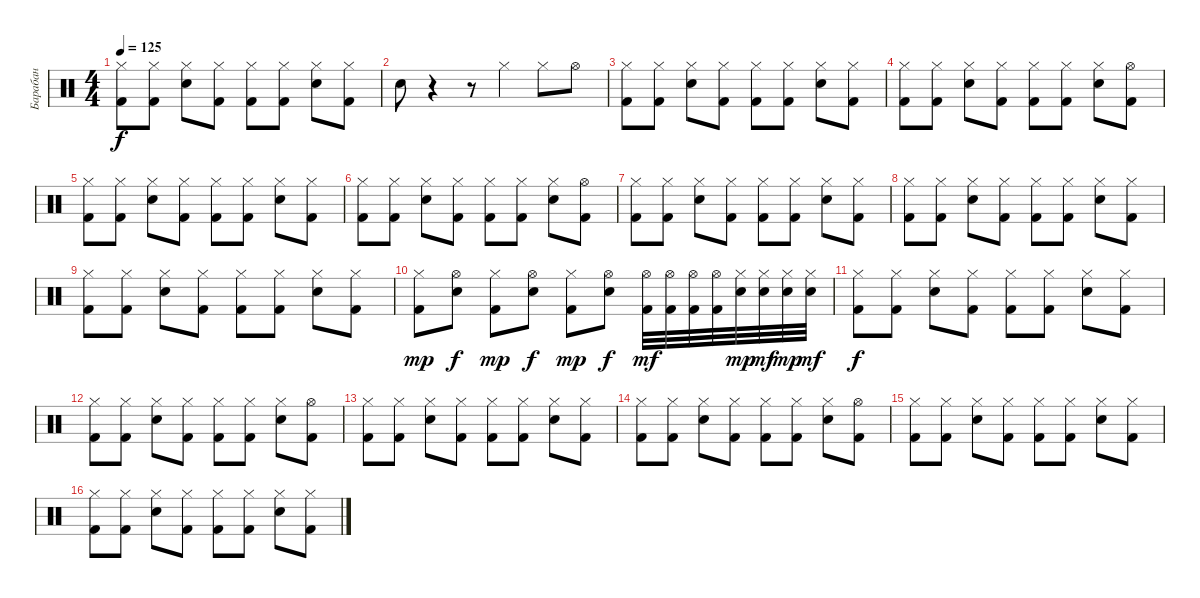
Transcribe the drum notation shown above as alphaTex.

\track ("Барабан" "Барабан") {instrument percussion}
\staff {score}
\articulation defaults
\ts (4 4)
\tempo 125
\clef neutral
\ks c
("Kick (hit) 2" "Hi-Hat (closed)").8{dy f} ("Kick (hit) 2" "Hi-Hat (closed)").8 ("Electric Snare (hit)" "Hi-Hat (closed)").8 ("Kick (hit) 2" "Hi-Hat (closed)").8 ("Kick (hit) 2" "Hi-Hat (closed)").8 ("Kick (hit) 2" "Hi-Hat (closed)").8 ("Electric Snare (hit)" "Hi-Hat (closed)").8 ("Kick (hit) 2" "Hi-Hat (closed)").8 |
"Electric Snare (hit)".8 r.4 r.8 "Hi-Hat (closed)".4 "Hi-Hat (closed)".8 "Hi-Hat (open)".8 |
("Kick (hit) 2" "Hi-Hat (closed)").8 ("Kick (hit) 2" "Hi-Hat (closed)").8 ("Electric Snare (hit)" "Hi-Hat (closed)").8 ("Kick (hit) 2" "Hi-Hat (closed)").8 ("Kick (hit) 2" "Hi-Hat (closed)").8 ("Kick (hit) 2" "Hi-Hat (closed)").8 ("Electric Snare (hit)" "Hi-Hat (closed)").8 ("Kick (hit) 2" "Hi-Hat (closed)").8 |
("Kick (hit) 2" "Hi-Hat (closed)").8 ("Kick (hit) 2" "Hi-Hat (closed)").8 ("Electric Snare (hit)" "Hi-Hat (closed)").8 ("Kick (hit) 2" "Hi-Hat (closed)").8 ("Kick (hit) 2" "Hi-Hat (closed)").8 ("Kick (hit) 2" "Hi-Hat (closed)").8 ("Electric Snare (hit)" "Hi-Hat (closed)").8 ("Kick (hit) 2" "Hi-Hat (open)").8 |
("Kick (hit) 2" "Hi-Hat (closed)").8 ("Kick (hit) 2" "Hi-Hat (closed)").8 ("Electric Snare (hit)" "Hi-Hat (closed)").8 ("Kick (hit) 2" "Hi-Hat (closed)").8 ("Kick (hit) 2" "Hi-Hat (closed)").8 ("Kick (hit) 2" "Hi-Hat (closed)").8 ("Electric Snare (hit)" "Hi-Hat (closed)").8 ("Kick (hit) 2" "Hi-Hat (closed)").8 |
("Kick (hit) 2" "Hi-Hat (closed)").8 ("Kick (hit) 2" "Hi-Hat (closed)").8 ("Electric Snare (hit)" "Hi-Hat (closed)").8 ("Kick (hit) 2" "Hi-Hat (closed)").8 ("Kick (hit) 2" "Hi-Hat (closed)").8 ("Kick (hit) 2" "Hi-Hat (closed)").8 ("Electric Snare (hit)" "Hi-Hat (closed)").8 ("Kick (hit) 2" "Hi-Hat (open)").8 |
("Kick (hit) 2" "Hi-Hat (closed)").8 ("Kick (hit) 2" "Hi-Hat (closed)").8 ("Electric Snare (hit)" "Hi-Hat (closed)").8 ("Kick (hit) 2" "Hi-Hat (closed)").8 ("Kick (hit) 2" "Hi-Hat (closed)").8 ("Kick (hit) 2" "Hi-Hat (closed)").8 ("Electric Snare (hit)" "Hi-Hat (closed)").8 ("Kick (hit) 2" "Hi-Hat (closed)").8 |
("Kick (hit) 2" "Hi-Hat (closed)").8 ("Kick (hit) 2" "Hi-Hat (closed)").8 ("Electric Snare (hit)" "Hi-Hat (closed)").8 ("Kick (hit) 2" "Hi-Hat (closed)").8 ("Kick (hit) 2" "Hi-Hat (closed)").8 ("Kick (hit) 2" "Hi-Hat (closed)").8 ("Electric Snare (hit)" "Hi-Hat (closed)").8 ("Kick (hit) 2" "Hi-Hat (closed)").8 |
("Kick (hit) 2" "Hi-Hat (closed)").8 ("Kick (hit) 2" "Hi-Hat (closed)").8 ("Electric Snare (hit)" "Hi-Hat (closed)").8 ("Kick (hit) 2" "Hi-Hat (closed)").8 ("Kick (hit) 2" "Hi-Hat (closed)").8 ("Kick (hit) 2" "Hi-Hat (closed)").8 ("Electric Snare (hit)" "Hi-Hat (closed)").8 ("Kick (hit) 2" "Hi-Hat (closed)").8 |
("Kick (hit) 2" "Hi-Hat (closed)").8{dy mp} ("Electric Snare (hit)" "Hi-Hat (open)").8{dy f} ("Kick (hit) 2" "Hi-Hat (closed)").8{dy mp} ("Electric Snare (hit)" "Hi-Hat (open)").8{dy f} ("Kick (hit) 2" "Hi-Hat (closed)").8{dy mp} ("Electric Snare (hit)" "Hi-Hat (open)").8{dy f} ("Hi-Hat (open)" "Kick (hit) 2").32{dy mf} ("Hi-Hat (open)" "Kick (hit) 2").32 ("Hi-Hat (open)" "Kick (hit) 2").32 ("Hi-Hat (open)" "Kick (hit) 2").32 ("Hi-Hat (closed)" "Snare (hit) 2").32{dy mp} ("Hi-Hat (closed)" "Snare (hit) 2").32{dy mf} ("Hi-Hat (closed)" "Snare (hit) 2").32{dy mp} ("Hi-Hat (closed)" "Snare (hit) 2").32{dy mf} |
("Kick (hit) 2" "Hi-Hat (closed)").8{dy f} ("Kick (hit) 2" "Hi-Hat (closed)").8 ("Electric Snare (hit)" "Hi-Hat (closed)").8 ("Kick (hit) 2" "Hi-Hat (closed)").8 ("Kick (hit) 2" "Hi-Hat (closed)").8 ("Kick (hit) 2" "Hi-Hat (closed)").8 ("Electric Snare (hit)" "Hi-Hat (closed)").8 ("Kick (hit) 2" "Hi-Hat (closed)").8 |
("Kick (hit) 2" "Hi-Hat (closed)").8 ("Kick (hit) 2" "Hi-Hat (closed)").8 ("Electric Snare (hit)" "Hi-Hat (closed)").8 ("Kick (hit) 2" "Hi-Hat (closed)").8 ("Kick (hit) 2" "Hi-Hat (closed)").8 ("Kick (hit) 2" "Hi-Hat (closed)").8 ("Electric Snare (hit)" "Hi-Hat (closed)").8 ("Kick (hit) 2" "Hi-Hat (open)").8 |
("Kick (hit) 2" "Hi-Hat (closed)").8 ("Kick (hit) 2" "Hi-Hat (closed)").8 ("Electric Snare (hit)" "Hi-Hat (closed)").8 ("Kick (hit) 2" "Hi-Hat (closed)").8 ("Kick (hit) 2" "Hi-Hat (closed)").8 ("Kick (hit) 2" "Hi-Hat (closed)").8 ("Electric Snare (hit)" "Hi-Hat (closed)").8 ("Kick (hit) 2" "Hi-Hat (closed)").8 |
("Kick (hit) 2" "Hi-Hat (closed)").8 ("Kick (hit) 2" "Hi-Hat (closed)").8 ("Electric Snare (hit)" "Hi-Hat (closed)").8 ("Kick (hit) 2" "Hi-Hat (closed)").8 ("Kick (hit) 2" "Hi-Hat (closed)").8 ("Kick (hit) 2" "Hi-Hat (closed)").8 ("Electric Snare (hit)" "Hi-Hat (closed)").8 ("Kick (hit) 2" "Hi-Hat (open)").8 |
("Kick (hit) 2" "Hi-Hat (closed)").8 ("Kick (hit) 2" "Hi-Hat (closed)").8 ("Electric Snare (hit)" "Hi-Hat (closed)").8 ("Kick (hit) 2" "Hi-Hat (closed)").8 ("Kick (hit) 2" "Hi-Hat (closed)").8 ("Kick (hit) 2" "Hi-Hat (closed)").8 ("Electric Snare (hit)" "Hi-Hat (closed)").8 ("Kick (hit) 2" "Hi-Hat (closed)").8 |
("Kick (hit) 2" "Hi-Hat (closed)").8 ("Kick (hit) 2" "Hi-Hat (closed)").8 ("Electric Snare (hit)" "Hi-Hat (closed)").8 ("Kick (hit) 2" "Hi-Hat (closed)").8 ("Kick (hit) 2" "Hi-Hat (closed)").8 ("Kick (hit) 2" "Hi-Hat (closed)").8 ("Electric Snare (hit)" "Hi-Hat (closed)").8 ("Kick (hit) 2" "Hi-Hat (closed)").8
